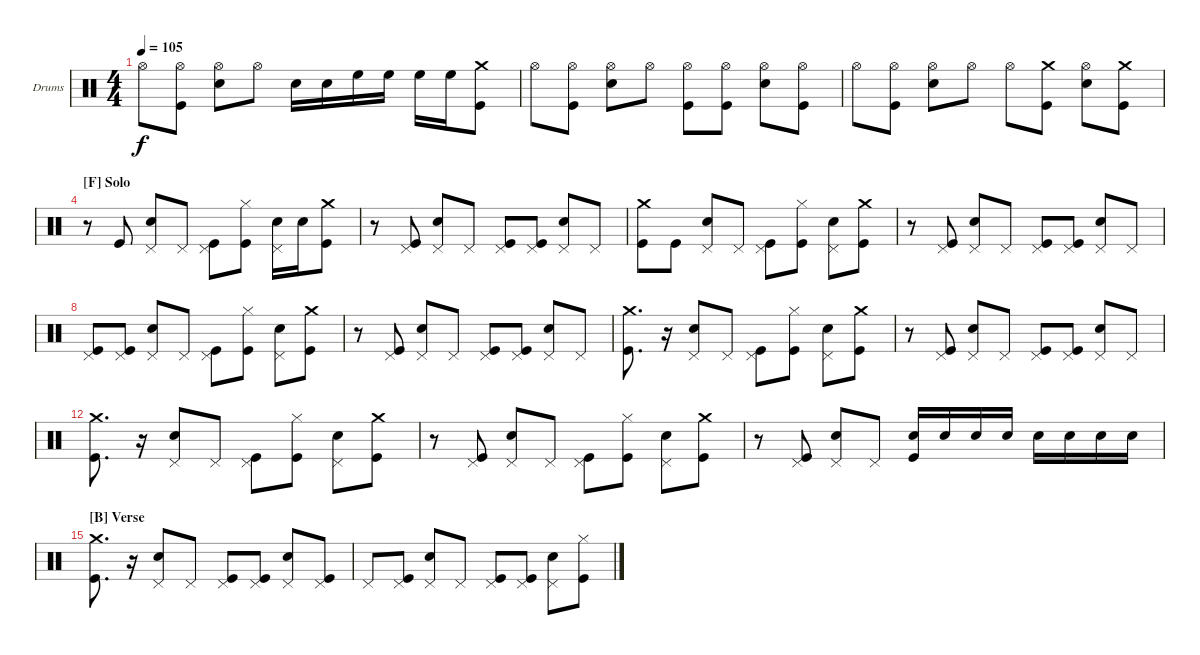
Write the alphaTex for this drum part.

\bracketExtendMode nobrackets
\firstSystemTrackNameOrientation horizontal
\otherSystemsTrackNameOrientation horizontal
\defaultBarNumberDisplay FirstOfSystem
\track ("Drumkit" "Drums") {instrument percussion}
\staff {score}
\articulation defaults
\ts (4 4)
\tempo 105
\clef neutral
\ks c "Hi-Hat (open)".8{dy f}
("Kick (hit)" "Hi-Hat (open)").8 ("Snare (hit) 2" "Hi-Hat (open)").8 "Hi-Hat (open)".8 "Snare (hit) 2".16 "Snare (hit) 2".16 "High Floor Tom (hit)".16 "High Floor Tom (hit)".16 "High Floor Tom (hit)".16 "High Floor Tom (hit)".16 ("Kick (hit)" "Crash medium (hit)").8 |
"Hi-Hat (open)".8 ("Kick (hit)" "Hi-Hat (open)").8 ("Snare (hit) 2" "Hi-Hat (open)").8 "Hi-Hat (open)".8 ("Kick (hit)" "Hi-Hat (open)").8 ("Kick (hit)" "Hi-Hat (open)").8 ("Snare (hit) 2" "Hi-Hat (open)").8 ("Kick (hit)" "Hi-Hat (open)").8 |
"Hi-Hat (open)".8 ("Kick (hit)" "Hi-Hat (open)").8 ("Snare (hit) 2" "Hi-Hat (open)").8 "Hi-Hat (open)".8 "Hi-Hat (open)".8 ("Kick (hit)" "Crash medium (hit)").8 ("Snare (hit) 2" "Hi-Hat (open)").8 ("Kick (hit)" "Crash medium (hit)").8 |
\section ("F" "Solo")
r.8 "Kick (hit)".8 ("Snare (hit) 2" "Pedal Hi-Hat (hit)").8 "Pedal Hi-Hat (hit)".8 ("Kick (hit)" "Pedal Hi-Hat (hit)").8 ("Kick (hit)" "Hi-Hat (closed)").8 ("Snare (hit) 2" "Pedal Hi-Hat (hit)").16 "Snare (hit) 2".16 ("Kick (hit)" "Crash medium (hit)").8 |
r.8 ("Kick (hit)" "Pedal Hi-Hat (hit)").8 ("Snare (hit) 2" "Pedal Hi-Hat (hit)").8 "Pedal Hi-Hat (hit)".8 ("Kick (hit)" "Pedal Hi-Hat (hit)").8 ("Kick (hit)" "Pedal Hi-Hat (hit)").8 ("Snare (hit) 2" "Pedal Hi-Hat (hit)").8 "Pedal Hi-Hat (hit)".8 |
("Kick (hit)" "Crash medium (hit)").8 "Kick (hit)".8 ("Snare (hit) 2" "Pedal Hi-Hat (hit)").8 "Pedal Hi-Hat (hit)".8 ("Kick (hit)" "Pedal Hi-Hat (hit)").8 ("Kick (hit)" "Hi-Hat (closed)").8 ("Snare (hit) 2" "Pedal Hi-Hat (hit)").8 ("Kick (hit)" "Crash medium (hit)").8 |
r.8 ("Kick (hit)" "Pedal Hi-Hat (hit)").8 ("Snare (hit) 2" "Pedal Hi-Hat (hit)").8 "Pedal Hi-Hat (hit)".8 ("Kick (hit)" "Pedal Hi-Hat (hit)").8 ("Kick (hit)" "Pedal Hi-Hat (hit)").8 ("Snare (hit) 2" "Pedal Hi-Hat (hit)").8 "Pedal Hi-Hat (hit)".8 |
("Kick (hit)" "Pedal Hi-Hat (hit)").8 ("Kick (hit)" "Pedal Hi-Hat (hit)").8 ("Snare (hit) 2" "Pedal Hi-Hat (hit)").8 "Pedal Hi-Hat (hit)".8 ("Kick (hit)" "Pedal Hi-Hat (hit)").8 ("Kick (hit)" "Hi-Hat (closed)").8 ("Snare (hit) 2" "Pedal Hi-Hat (hit)").8 ("Kick (hit)" "Crash medium (hit)").8 |
r.8 ("Kick (hit)" "Pedal Hi-Hat (hit)").8 ("Snare (hit) 2" "Pedal Hi-Hat (hit)").8 "Pedal Hi-Hat (hit)".8 ("Kick (hit)" "Pedal Hi-Hat (hit)").8 ("Kick (hit)" "Pedal Hi-Hat (hit)").8 ("Snare (hit) 2" "Pedal Hi-Hat (hit)").8 "Pedal Hi-Hat (hit)".8 |
("Kick (hit)" "Crash medium (hit)").8{d} r.16 ("Snare (hit) 2" "Pedal Hi-Hat (hit)").8 "Pedal Hi-Hat (hit)".8 ("Kick (hit)" "Pedal Hi-Hat (hit)").8 ("Kick (hit)" "Hi-Hat (closed)").8 ("Snare (hit) 2" "Pedal Hi-Hat (hit)").8 ("Kick (hit)" "Crash medium (hit)").8 |
r.8 ("Kick (hit)" "Pedal Hi-Hat (hit)").8 ("Snare (hit) 2" "Pedal Hi-Hat (hit)").8 "Pedal Hi-Hat (hit)".8 ("Kick (hit)" "Pedal Hi-Hat (hit)").8 ("Kick (hit)" "Pedal Hi-Hat (hit)").8 ("Snare (hit) 2" "Pedal Hi-Hat (hit)").8 "Pedal Hi-Hat (hit)".8 |
("Kick (hit)" "Crash medium (hit)").8{d} r.16 ("Snare (hit) 2" "Pedal Hi-Hat (hit)").8 "Pedal Hi-Hat (hit)".8 ("Kick (hit)" "Pedal Hi-Hat (hit)").8 ("Kick (hit)" "Hi-Hat (closed)").8 ("Snare (hit) 2" "Pedal Hi-Hat (hit)").8 ("Kick (hit)" "Crash medium (hit)").8 |
r.8 ("Kick (hit)" "Pedal Hi-Hat (hit)").8 ("Snare (hit) 2" "Pedal Hi-Hat (hit)").8 "Pedal Hi-Hat (hit)".8 ("Kick (hit)" "Pedal Hi-Hat (hit)").8 ("Kick (hit)" "Hi-Hat (closed)").8 ("Snare (hit) 2" "Pedal Hi-Hat (hit)").8 ("Kick (hit)" "Crash medium (hit)").8 |
r.8 ("Kick (hit)" "Pedal Hi-Hat (hit)").8 ("Snare (hit) 2" "Pedal Hi-Hat (hit)").8 "Pedal Hi-Hat (hit)".8 ("Kick (hit)" "Snare (hit) 2").16 "Snare (hit) 2".16 "Snare (hit) 2".16 "Snare (hit) 2".16 "Snare (hit) 2".16 "Snare (hit) 2".16 "Snare (hit) 2".16 "Snare (hit) 2".16 |
\section ("B" "Verse")
\scale
0.21875 ("Kick (hit)" "Crash medium (hit)").8{d} r.16 ("Snare (hit) 2" "Pedal Hi-Hat (hit)").8 "Pedal Hi-Hat (hit)".8 ("Kick (hit)" "Pedal Hi-Hat (hit)").8 ("Kick (hit)" "Pedal Hi-Hat (hit)").8 ("Snare (hit) 2" "Pedal Hi-Hat (hit)").8 ("Kick (hit)" "Pedal Hi-Hat (hit)").8 |
\scale
0.21875 "Pedal Hi-Hat (hit)".8 ("Kick (hit)" "Pedal Hi-Hat (hit)").8 ("Snare (hit) 2" "Pedal Hi-Hat (hit)").8 "Pedal Hi-Hat (hit)".8 ("Kick (hit)" "Pedal Hi-Hat (hit)").8 ("Kick (hit)" "Pedal Hi-Hat (hit)").8 ("Snare (hit) 2" "Pedal Hi-Hat (hit)").8 ("Kick (hit)" "Hi-Hat (closed)").8
